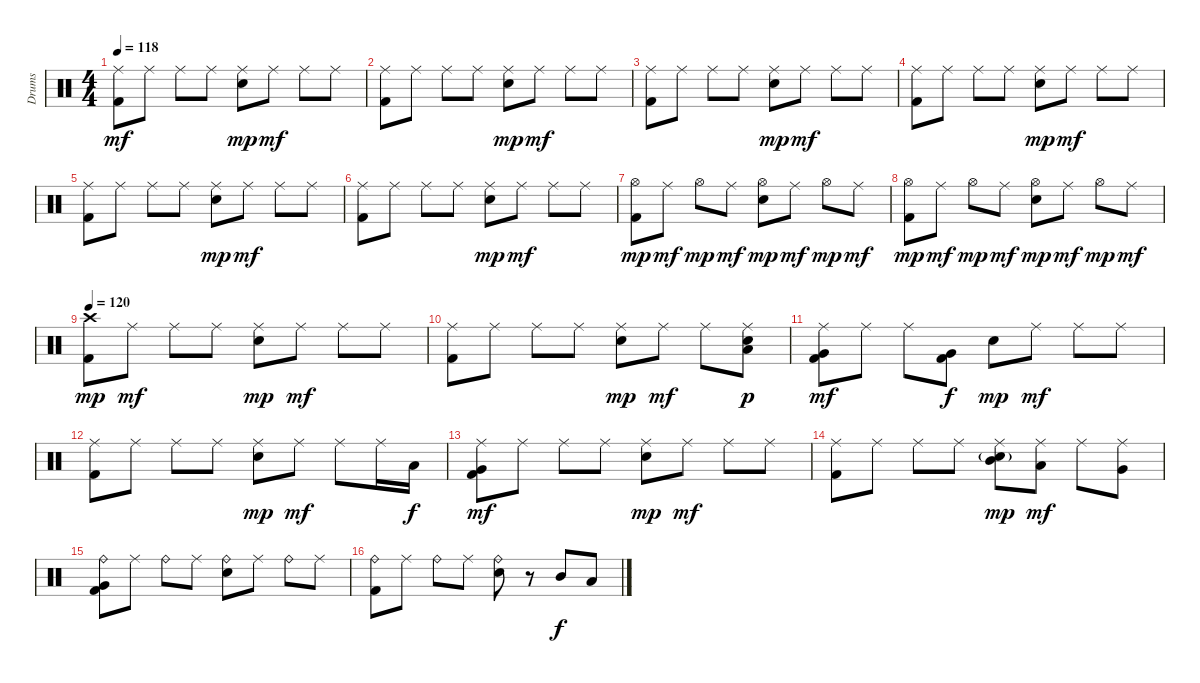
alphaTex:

\track ("Drums" "Drums") {instrument percussion}
\staff {score}
\articulation defaults
\ts (4 4)
\tempo 118
\clef neutral
\ks c
("Ride (middle)" "Kick (hit) 2").8{dy mf} "Ride (middle)".8 "Ride (middle)".8 "Ride (middle)".8 ("Ride (middle)" "Electric Snare (hit)").8{dy mp} "Ride (middle)".8{dy mf} "Ride (middle)".8 "Ride (middle)".8 |
("Ride (middle)" "Kick (hit) 2").8 "Ride (middle)".8 "Ride (middle)".8 "Ride (middle)".8 ("Ride (middle)" "Electric Snare (hit)").8{dy mp} "Ride (middle)".8{dy mf} "Ride (middle)".8 "Ride (middle)".8 |
("Ride (middle)" "Kick (hit) 2").8 "Ride (middle)".8 "Ride (middle)".8 "Ride (middle)".8 ("Ride (middle)" "Electric Snare (hit)").8{dy mp} "Ride (middle)".8{dy mf} "Ride (middle)".8 "Ride (middle)".8 |
("Ride (middle)" "Kick (hit) 2").8 "Ride (middle)".8 "Ride (middle)".8 "Ride (middle)".8 ("Ride (middle)" "Electric Snare (hit)").8{dy mp} "Ride (middle)".8{dy mf} "Ride (middle)".8 "Ride (middle)".8 |
("Ride (middle)" "Kick (hit) 2").8 "Ride (middle)".8 "Ride (middle)".8 "Ride (middle)".8 ("Ride (middle)" "Electric Snare (hit)").8{dy mp} "Ride (middle)".8{dy mf} "Ride (middle)".8 "Ride (middle)".8 |
("Ride (middle)" "Kick (hit) 2").8 "Ride (middle)".8 "Ride (middle)".8 "Ride (middle)".8 ("Ride (middle)" "Electric Snare (hit)").8{dy mp} "Ride (middle)".8{dy mf} "Ride (middle)".8 "Ride (middle)".8 |
("Hi-Hat (open)" "Kick (hit) 2").8{dy mp} "Ride (middle)".8{dy mf} "Hi-Hat (open)".8{dy mp} "Ride (middle)".8{dy mf} ("Hi-Hat (open)" "Electric Snare (hit)").8{dy mp} "Ride (middle)".8{dy mf} "Hi-Hat (open)".8{dy mp} "Ride (middle)".8{dy mf} |
("Hi-Hat (open)" "Kick (hit) 2").8{dy mp} "Ride (middle)".8{dy mf} "Hi-Hat (open)".8{dy mp} "Ride (middle)".8{dy mf} ("Hi-Hat (open)" "Electric Snare (hit)").8{dy mp} "Ride (middle)".8{dy mf} "Hi-Hat (open)".8{dy mp} "Ride (middle)".8{dy mf} |
\tempo 120
("Crash high (hit)" "Kick (hit) 2").8{dy mp} "Ride (middle)".8{dy mf} "Ride (middle)".8 "Ride (middle)".8 ("Ride (middle)" "Electric Snare (hit)").8{dy mp} "Ride (middle)".8{dy mf} "Ride (middle)".8 "Ride (middle)".8 |
("Ride (middle)" "Kick (hit) 2").8 "Ride (middle)".8 "Ride (middle)".8 "Ride (middle)".8 ("Ride (middle)" "Electric Snare (hit)").8{dy mp} "Ride (middle)".8{dy mf} "Ride (middle)".8 ("Ride (middle)" "Low Tom (hit)" "Snare (hit) 2").8{dy p} |
("Ride (middle)" "Very Low Tom (hit)" "Kick (hit) 2").8{dy mf} "Ride (middle)".8 "Ride (middle)".8 ("Very Low Tom (hit)" "Kick (hit) 2").8{dy f} "Electric Snare (hit)".8{dy mp} "Ride (middle)".8{dy mf} "Ride (middle)".8 "Ride (middle)".8 |
("Ride (middle)" "Kick (hit) 2").8 "Ride (middle)".8 "Ride (middle)".8 "Ride (middle)".8 ("Ride (middle)" "Electric Snare (hit)").8{dy mp} "Ride (middle)".8{dy mf} "Ride (middle)".8 "Ride (middle)".16 "Low Tom (hit)".16{dy f} |
("Ride (middle)" "Very Low Tom (hit)" "Kick (hit) 2").8{dy mf} "Ride (middle)".8 "Ride (middle)".8 "Ride (middle)".8 ("Ride (middle)" "Electric Snare (hit)").8{dy mp} "Ride (middle)".8{dy mf} "Ride (middle)".8 "Ride (middle)".8 |
("Ride (middle)" "Kick (hit) 2").8 "Ride (middle)".8 "Ride (middle)".8 "Ride (middle)".8 ("Ride (middle)" "Mid Tom (hit)" "Electric Snare (hit)"{g}).8{dy mp} ("Ride (middle)" "Low Tom (hit)").8{dy mf} "Ride (middle)".8 ("Ride (middle)" "Very Low Tom (hit)").8 |
("Ride (bell)" "Very Low Tom (hit)" "Kick (hit) 2").8 "Ride (middle)".8 "Ride (bell)".8 "Ride (middle)".8 ("Ride (bell)" "Electric Snare (hit)").8 "Ride (middle)".8 "Ride (bell)".8 "Ride (middle)".8 |
("Ride (bell)" "Kick (hit) 2").8 "Ride (middle)".8 "Ride (bell)".8 "Ride (middle)".8 ("Ride (bell)" "Electric Snare (hit)").8 r.8 "Mid Tom (hit)".8{dy f} "Low Tom (hit)".8
